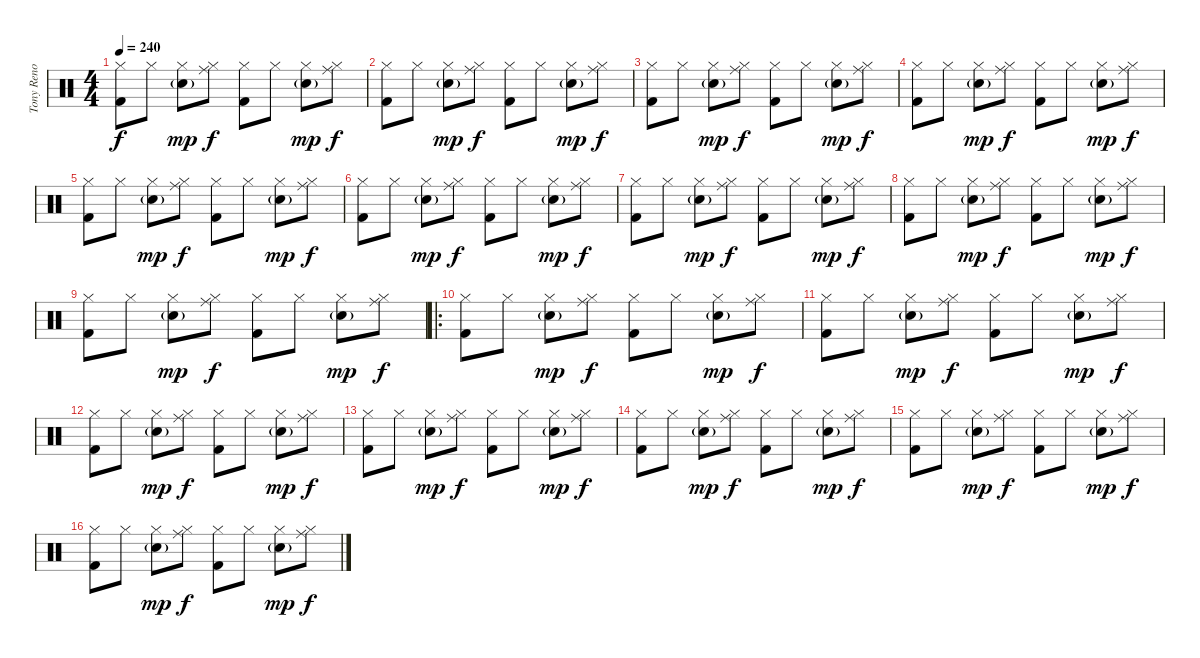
\track ("Tony Reno" "Tony Reno") {instrument percussion}
\staff {score}
\articulation defaults
\ts (4 4)
\tempo 240
\clef neutral
\ks c
("Hi-Hat (closed)" "Kick (hit) 2").8{dy f} "Hi-Hat (closed)".8 ("Hi-Hat (closed)" "Electric Snare (hit)"{g}).8{dy mp} ("Hi-Hat (closed)" "Ride (middle)").8{dy f} ("Hi-Hat (closed)" "Kick (hit) 2").8 "Hi-Hat (closed)".8 ("Hi-Hat (closed)" "Electric Snare (hit)"{g}).8{dy mp} ("Hi-Hat (closed)" "Ride (middle)").8{dy f} |
("Hi-Hat (closed)" "Kick (hit) 2").8 "Hi-Hat (closed)".8 ("Hi-Hat (closed)" "Electric Snare (hit)"{g}).8{dy mp} ("Hi-Hat (closed)" "Ride (middle)").8{dy f} ("Hi-Hat (closed)" "Kick (hit) 2").8 "Hi-Hat (closed)".8 ("Hi-Hat (closed)" "Electric Snare (hit)"{g}).8{dy mp} ("Hi-Hat (closed)" "Ride (middle)").8{dy f} |
("Hi-Hat (closed)" "Kick (hit) 2").8 "Hi-Hat (closed)".8 ("Hi-Hat (closed)" "Electric Snare (hit)"{g}).8{dy mp} ("Hi-Hat (closed)" "Ride (middle)").8{dy f} ("Hi-Hat (closed)" "Kick (hit) 2").8 "Hi-Hat (closed)".8 ("Hi-Hat (closed)" "Electric Snare (hit)"{g}).8{dy mp} ("Hi-Hat (closed)" "Ride (middle)").8{dy f} |
("Hi-Hat (closed)" "Kick (hit) 2").8 "Hi-Hat (closed)".8 ("Hi-Hat (closed)" "Electric Snare (hit)"{g}).8{dy mp} ("Hi-Hat (closed)" "Ride (middle)").8{dy f} ("Hi-Hat (closed)" "Kick (hit) 2").8 "Hi-Hat (closed)".8 ("Hi-Hat (closed)" "Electric Snare (hit)"{g}).8{dy mp} ("Hi-Hat (closed)" "Ride (middle)").8{dy f} |
("Hi-Hat (closed)" "Kick (hit) 2").8 "Hi-Hat (closed)".8 ("Hi-Hat (closed)" "Electric Snare (hit)"{g}).8{dy mp} ("Hi-Hat (closed)" "Ride (middle)").8{dy f} ("Hi-Hat (closed)" "Kick (hit) 2").8 "Hi-Hat (closed)".8 ("Hi-Hat (closed)" "Electric Snare (hit)"{g}).8{dy mp} ("Hi-Hat (closed)" "Ride (middle)").8{dy f} |
("Hi-Hat (closed)" "Kick (hit) 2").8 "Hi-Hat (closed)".8 ("Hi-Hat (closed)" "Electric Snare (hit)"{g}).8{dy mp} ("Hi-Hat (closed)" "Ride (middle)").8{dy f} ("Hi-Hat (closed)" "Kick (hit) 2").8 "Hi-Hat (closed)".8 ("Hi-Hat (closed)" "Electric Snare (hit)"{g}).8{dy mp} ("Hi-Hat (closed)" "Ride (middle)").8{dy f} |
("Hi-Hat (closed)" "Kick (hit) 2").8 "Hi-Hat (closed)".8 ("Hi-Hat (closed)" "Electric Snare (hit)"{g}).8{dy mp} ("Hi-Hat (closed)" "Ride (middle)").8{dy f} ("Hi-Hat (closed)" "Kick (hit) 2").8 "Hi-Hat (closed)".8 ("Hi-Hat (closed)" "Electric Snare (hit)"{g}).8{dy mp} ("Hi-Hat (closed)" "Ride (middle)").8{dy f} |
("Hi-Hat (closed)" "Kick (hit) 2").8 "Hi-Hat (closed)".8 ("Hi-Hat (closed)" "Electric Snare (hit)"{g}).8{dy mp} ("Hi-Hat (closed)" "Ride (middle)").8{dy f} ("Hi-Hat (closed)" "Kick (hit) 2").8 "Hi-Hat (closed)".8 ("Hi-Hat (closed)" "Electric Snare (hit)"{g}).8{dy mp} ("Hi-Hat (closed)" "Ride (middle)").8{dy f} |
("Hi-Hat (closed)" "Kick (hit) 2").8 "Hi-Hat (closed)".8 ("Hi-Hat (closed)" "Electric Snare (hit)"{g}).8{dy mp} ("Hi-Hat (closed)" "Ride (middle)").8{dy f} ("Hi-Hat (closed)" "Kick (hit) 2").8 "Hi-Hat (closed)".8 ("Hi-Hat (closed)" "Electric Snare (hit)"{g}).8{dy mp} ("Hi-Hat (closed)" "Ride (middle)").8{dy f} |
\ro
("Hi-Hat (closed)" "Kick (hit) 2").8 "Hi-Hat (closed)".8 ("Hi-Hat (closed)" "Electric Snare (hit)"{g}).8{dy mp} ("Hi-Hat (closed)" "Ride (middle)").8{dy f} ("Hi-Hat (closed)" "Kick (hit) 2").8 "Hi-Hat (closed)".8 ("Hi-Hat (closed)" "Electric Snare (hit)"{g}).8{dy mp} ("Hi-Hat (closed)" "Ride (middle)").8{dy f} |
("Hi-Hat (closed)" "Kick (hit) 2").8 "Hi-Hat (closed)".8 ("Hi-Hat (closed)" "Electric Snare (hit)"{g}).8{dy mp} ("Hi-Hat (closed)" "Ride (middle)").8{dy f} ("Hi-Hat (closed)" "Kick (hit) 2").8 "Hi-Hat (closed)".8 ("Hi-Hat (closed)" "Electric Snare (hit)"{g}).8{dy mp} ("Hi-Hat (closed)" "Ride (middle)").8{dy f} |
("Hi-Hat (closed)" "Kick (hit) 2").8 "Hi-Hat (closed)".8 ("Hi-Hat (closed)" "Electric Snare (hit)"{g}).8{dy mp} ("Hi-Hat (closed)" "Ride (middle)").8{dy f} ("Hi-Hat (closed)" "Kick (hit) 2").8 "Hi-Hat (closed)".8 ("Hi-Hat (closed)" "Electric Snare (hit)"{g}).8{dy mp} ("Hi-Hat (closed)" "Ride (middle)").8{dy f} |
("Hi-Hat (closed)" "Kick (hit) 2").8 "Hi-Hat (closed)".8 ("Hi-Hat (closed)" "Electric Snare (hit)"{g}).8{dy mp} ("Hi-Hat (closed)" "Ride (middle)").8{dy f} ("Hi-Hat (closed)" "Kick (hit) 2").8 "Hi-Hat (closed)".8 ("Hi-Hat (closed)" "Electric Snare (hit)"{g}).8{dy mp} ("Hi-Hat (closed)" "Ride (middle)").8{dy f} |
("Hi-Hat (closed)" "Kick (hit) 2").8 "Hi-Hat (closed)".8 ("Hi-Hat (closed)" "Electric Snare (hit)"{g}).8{dy mp} ("Hi-Hat (closed)" "Ride (middle)").8{dy f} ("Hi-Hat (closed)" "Kick (hit) 2").8 "Hi-Hat (closed)".8 ("Hi-Hat (closed)" "Electric Snare (hit)"{g}).8{dy mp} ("Hi-Hat (closed)" "Ride (middle)").8{dy f} |
("Hi-Hat (closed)" "Kick (hit) 2").8 "Hi-Hat (closed)".8 ("Hi-Hat (closed)" "Electric Snare (hit)"{g}).8{dy mp} ("Hi-Hat (closed)" "Ride (middle)").8{dy f} ("Hi-Hat (closed)" "Kick (hit) 2").8 "Hi-Hat (closed)".8 ("Hi-Hat (closed)" "Electric Snare (hit)"{g}).8{dy mp} ("Hi-Hat (closed)" "Ride (middle)").8{dy f} |
("Hi-Hat (closed)" "Kick (hit) 2").8 "Hi-Hat (closed)".8 ("Hi-Hat (closed)" "Electric Snare (hit)"{g}).8{dy mp} ("Hi-Hat (closed)" "Ride (middle)").8{dy f} ("Hi-Hat (closed)" "Kick (hit) 2").8 "Hi-Hat (closed)".8 ("Hi-Hat (closed)" "Electric Snare (hit)"{g}).8{dy mp} ("Hi-Hat (closed)" "Ride (middle)").8{dy f}
